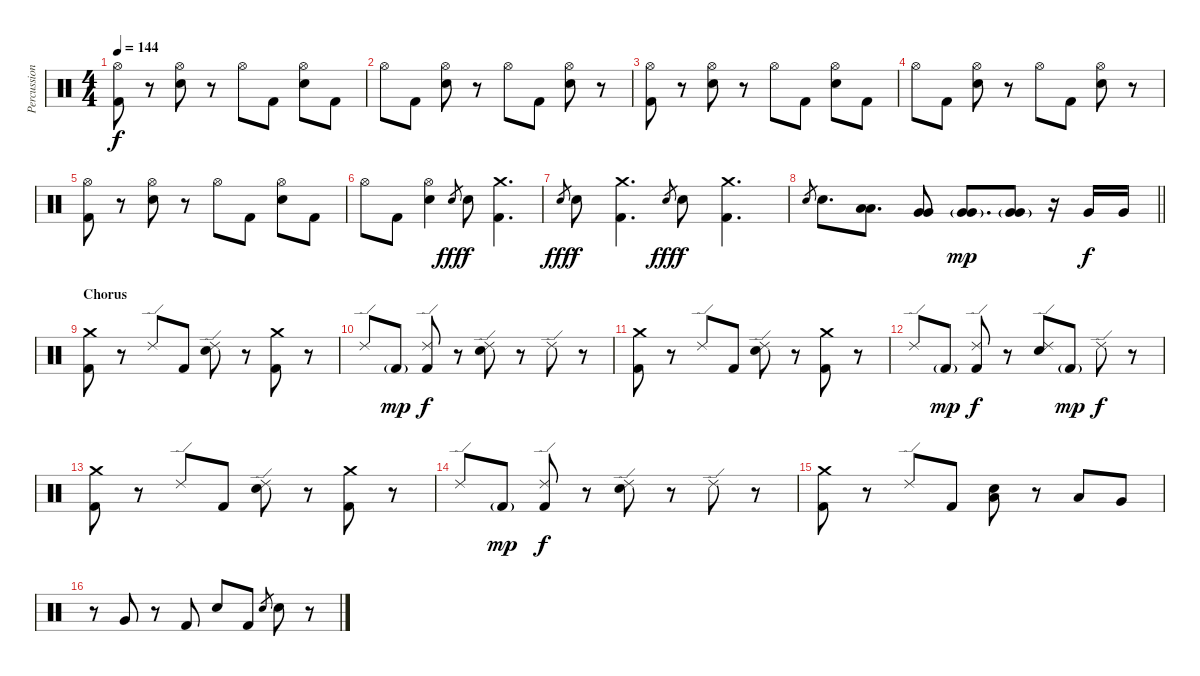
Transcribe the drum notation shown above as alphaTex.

\track ("Percussion" "Percussion") {instrument percussion}
\staff {score}
\articulation defaults
\ts (4 4)
\tempo 144
\clef neutral
\ks c
("Hi-Hat (open)" "Kick (hit) 2").8{dy f} r.8 ("Hi-Hat (open)" "Electric Snare (hit)").8 r.8 "Hi-Hat (open)".8 "Kick (hit) 2".8 ("Hi-Hat (open)" "Electric Snare (hit)").8 "Kick (hit) 2".8 |
"Hi-Hat (open)".8 "Kick (hit) 2".8 ("Hi-Hat (open)" "Electric Snare (hit)").8 r.8 "Hi-Hat (open)".8 "Kick (hit) 2".8 ("Hi-Hat (open)" "Electric Snare (hit)").8 r.8 |
("Hi-Hat (open)" "Kick (hit) 2").8 r.8 ("Hi-Hat (open)" "Electric Snare (hit)").8 r.8 "Hi-Hat (open)".8 "Kick (hit) 2".8 ("Hi-Hat (open)" "Electric Snare (hit)").8 "Kick (hit) 2".8 |
"Hi-Hat (open)".8 "Kick (hit) 2".8 ("Hi-Hat (open)" "Electric Snare (hit)").8 r.8 "Hi-Hat (open)".8 "Kick (hit) 2".8 ("Hi-Hat (open)" "Electric Snare (hit)").8 r.8 |
("Hi-Hat (open)" "Kick (hit) 2").8 r.8 ("Hi-Hat (open)" "Electric Snare (hit)").8 r.8 "Hi-Hat (open)".8 "Kick (hit) 2".8 ("Hi-Hat (open)" "Electric Snare (hit)").8 "Kick (hit) 2".8 |
"Hi-Hat (open)".8 "Kick (hit) 2".8 ("Hi-Hat (open)" "Electric Snare (hit)").4 "Electric Snare (hit)".8{gr dy fff} "Electric Snare (hit)".8{dy f} ("Crash medium (hit)" "Kick (hit) 2").4{d} |
"Electric Snare (hit)".8{gr dy fff} "Electric Snare (hit)".8{dy f} ("Crash medium (hit)" "Kick (hit) 2").4{d} "Electric Snare (hit)".8{gr dy fff} "Electric Snare (hit)".8{dy f} ("Crash medium (hit)" "Kick (hit) 2").4{d} |
\barLineRight lightlight "Electric Snare (hit)".8{gr} "Electric Snare (hit)".8{d}
("Low Tom (hit)" "Low Tom (hit)").8{d} ("Very Low Tom (hit)" "Very Low Tom (hit)").8 ("Very Low Tom (hit)"{g} "Very Low Tom (hit)").8{d dy mp} ("Very Low Tom (hit)"{g} "Very Low Tom (hit)").8 r.16 "Very Low Tom (hit)".16{dy f} "Very Low Tom (hit)".16 |
\section ("" "Chorus")
("Crash medium (hit)" "Kick (hit) 2").8 r.8 "Ride (edge) 2".8 "Kick (hit) 2".8 ("Ride (edge) 2" "Electric Snare (hit)").8 r.8 ("Crash medium (hit)" "Kick (hit) 2").8 r.8 |
"Ride (edge) 2".8 "Kick (hit) 2"{g}.8{dy mp} ("Ride (edge) 2" "Kick (hit) 2").8{dy f} r.8 ("Ride (edge) 2" "Electric Snare (hit)").8 r.8 "Ride (edge) 2".8 r.8 |
("Crash medium (hit)" "Kick (hit) 2").8 r.8 "Ride (edge) 2".8 "Kick (hit) 2".8 ("Ride (edge) 2" "Electric Snare (hit)").8 r.8 ("Crash medium (hit)" "Kick (hit) 2").8 r.8 |
"Ride (edge) 2".8 "Kick (hit) 2"{g}.8{dy mp} ("Ride (edge) 2" "Kick (hit) 2").8{dy f} r.8 ("Ride (edge) 2" "Electric Snare (hit)").8 "Kick (hit) 2"{g}.8{dy mp} "Ride (edge) 2".8{dy f} r.8 |
("Crash medium (hit)" "Kick (hit) 2").8 r.8 "Ride (edge) 2".8 "Kick (hit) 2".8 ("Ride (edge) 2" "Electric Snare (hit)").8 r.8 ("Crash medium (hit)" "Kick (hit) 2").8 r.8 |
"Ride (edge) 2".8 "Kick (hit) 2"{g}.8{dy mp} ("Ride (edge) 2" "Kick (hit) 2").8{dy f} r.8 ("Ride (edge) 2" "Electric Snare (hit)").8 r.8 "Ride (edge) 2".8 r.8 |
("Crash medium (hit)" "Kick (hit) 2").8 r.8 "Ride (edge) 2".8 "Kick (hit) 2".8 ("Low Floor Tom (hit)" "Electric Snare (hit)").8 r.8 "Low Tom (hit)".8 "Very Low Tom (hit)".8 |
r.8 "Very Low Tom (hit)".8 r.8 "Kick (hit) 2".8 "Electric Snare (hit)".8 "Kick (hit) 2".8 "Electric Snare (hit)".8{gr} "Electric Snare (hit)".8 r.8
